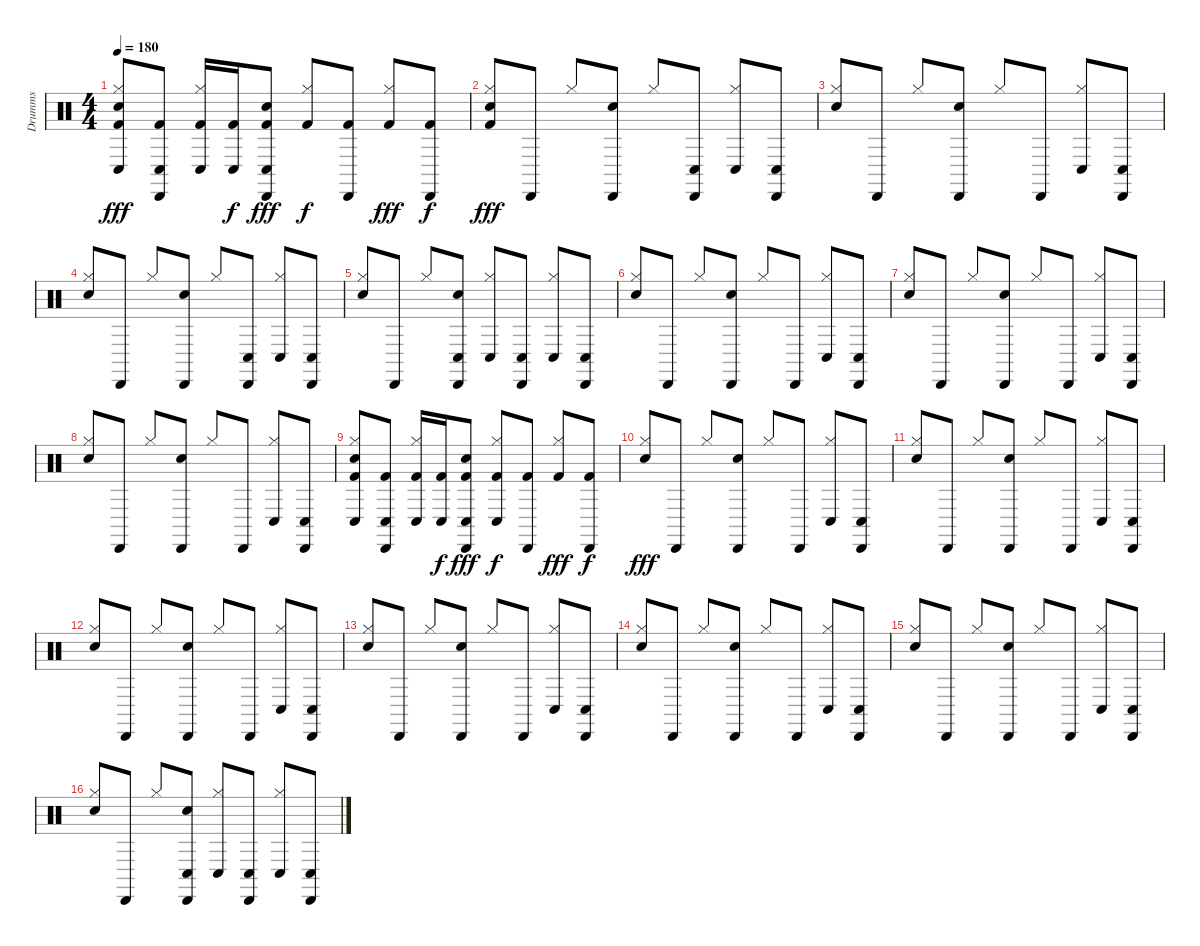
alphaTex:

\track ("Drumms" "Drumms") {instrument percussion}
\staff {score}
\articulation defaults
\ts (4 4)
\tempo 180
\clef neutral
\ks c
("Hi-Hat (closed)" "Metronome (bell)" "Conga low (hit)" "Kick (hit) 2").8{dy fff} ("Cabasa (hit)" "Conga low (hit)" "Kick (hit) 2").8 ("Hi-Hat (closed)" "Conga low (hit)" "Kick (hit) 2").16 ("Conga low (hit)" "Kick (hit) 2").16{dy f} ("Cabasa (hit)" "Metronome (bell)" "Conga low (hit)" "Kick (hit) 2").8{dy fff} ("Hi-Hat (closed)" "Kick (hit) 2").8{dy f} ("Cabasa (hit)" "Kick (hit) 2").8 ("Hi-Hat (closed)" "Kick (hit) 2").8{dy fff} ("Cabasa (hit)" "Kick (hit) 2").8{dy f} |
("Hi-Hat (closed)" "Metronome (bell)" "Kick (hit) 2").8{dy fff} "Cabasa (hit)".8 "Hi-Hat (closed)".8 ("Cabasa (hit)" "Metronome (bell)").8 "Hi-Hat (closed)".8 ("Cabasa (hit)" "Conga low (hit)").8 ("Hi-Hat (closed)" "Conga low (hit)").8 ("Cabasa (hit)" "Conga low (hit)").8 |
("Hi-Hat (closed)" "Metronome (bell)").8 "Cabasa (hit)".8 "Hi-Hat (closed)".8 ("Cabasa (hit)" "Metronome (bell)").8 "Hi-Hat (closed)".8 "Cabasa (hit)".8 ("Hi-Hat (closed)" "Conga low (hit)").8 ("Cabasa (hit)" "Conga low (hit)").8 |
("Hi-Hat (closed)" "Metronome (bell)").8 "Cabasa (hit)".8 "Hi-Hat (closed)".8 ("Cabasa (hit)" "Metronome (bell)").8 "Hi-Hat (closed)".8 ("Cabasa (hit)" "Conga low (hit)").8 ("Hi-Hat (closed)" "Conga low (hit)").8 ("Cabasa (hit)" "Conga low (hit)").8 |
("Hi-Hat (closed)" "Metronome (bell)").8 "Cabasa (hit)".8 "Hi-Hat (closed)".8 ("Cabasa (hit)" "Metronome (bell)" "Conga low (hit)").8 ("Hi-Hat (closed)" "Conga low (hit)").8 ("Cabasa (hit)" "Conga low (hit)").8 ("Hi-Hat (closed)" "Conga low (hit)").8 ("Cabasa (hit)" "Conga low (hit)").8 |
("Hi-Hat (closed)" "Metronome (bell)").8 "Cabasa (hit)".8 "Hi-Hat (closed)".8 ("Cabasa (hit)" "Metronome (bell)").8 "Hi-Hat (closed)".8 "Cabasa (hit)".8 ("Hi-Hat (closed)" "Conga low (hit)").8 ("Cabasa (hit)" "Conga low (hit)").8 |
("Hi-Hat (closed)" "Metronome (bell)").8 "Cabasa (hit)".8 "Hi-Hat (closed)".8 ("Cabasa (hit)" "Metronome (bell)").8 "Hi-Hat (closed)".8 "Cabasa (hit)".8 ("Hi-Hat (closed)" "Conga low (hit)").8 ("Cabasa (hit)" "Conga low (hit)").8 |
("Hi-Hat (closed)" "Metronome (bell)").8 "Cabasa (hit)".8 "Hi-Hat (closed)".8 ("Cabasa (hit)" "Metronome (bell)").8 "Hi-Hat (closed)".8 "Cabasa (hit)".8 ("Hi-Hat (closed)" "Conga low (hit)").8 ("Cabasa (hit)" "Conga low (hit)").8 |
("Hi-Hat (closed)" "Metronome (bell)" "Conga low (hit)" "Kick (hit) 2").8 ("Cabasa (hit)" "Conga low (hit)" "Kick (hit) 2").8 ("Hi-Hat (closed)" "Conga low (hit)" "Kick (hit) 2").16 ("Conga low (hit)" "Kick (hit) 2").16{dy f} ("Cabasa (hit)" "Metronome (bell)" "Conga low (hit)" "Kick (hit) 2").8{dy fff} ("Hi-Hat (closed)" "Conga low (hit)" "Kick (hit) 2").8{dy f} ("Cabasa (hit)" "Kick (hit) 2").8 ("Hi-Hat (closed)" "Kick (hit) 2").8{dy fff} ("Cabasa (hit)" "Kick (hit) 2").8{dy f} |
("Hi-Hat (closed)" "Metronome (bell)").8{dy fff} "Cabasa (hit)".8 "Hi-Hat (closed)".8 ("Cabasa (hit)" "Metronome (bell)").8 "Hi-Hat (closed)".8 "Cabasa (hit)".8 ("Hi-Hat (closed)" "Conga low (hit)").8 ("Cabasa (hit)" "Conga low (hit)").8 |
("Hi-Hat (closed)" "Metronome (bell)").8 "Cabasa (hit)".8 "Hi-Hat (closed)".8 ("Cabasa (hit)" "Metronome (bell)").8 "Hi-Hat (closed)".8 "Cabasa (hit)".8 ("Hi-Hat (closed)" "Conga low (hit)").8 ("Cabasa (hit)" "Conga low (hit)").8 |
("Hi-Hat (closed)" "Metronome (bell)").8 "Cabasa (hit)".8 "Hi-Hat (closed)".8 ("Cabasa (hit)" "Metronome (bell)").8 "Hi-Hat (closed)".8 "Cabasa (hit)".8 ("Hi-Hat (closed)" "Conga low (hit)").8 ("Cabasa (hit)" "Conga low (hit)").8 |
("Hi-Hat (closed)" "Metronome (bell)").8 "Cabasa (hit)".8 "Hi-Hat (closed)".8 ("Cabasa (hit)" "Metronome (bell)").8 "Hi-Hat (closed)".8 "Cabasa (hit)".8 ("Hi-Hat (closed)" "Conga low (hit)").8 ("Cabasa (hit)" "Conga low (hit)").8 |
("Hi-Hat (closed)" "Metronome (bell)").8 "Cabasa (hit)".8 "Hi-Hat (closed)".8 ("Cabasa (hit)" "Metronome (bell)").8 "Hi-Hat (closed)".8 "Cabasa (hit)".8 ("Hi-Hat (closed)" "Conga low (hit)").8 ("Cabasa (hit)" "Conga low (hit)").8 |
("Hi-Hat (closed)" "Metronome (bell)").8 "Cabasa (hit)".8 "Hi-Hat (closed)".8 ("Cabasa (hit)" "Metronome (bell)").8 "Hi-Hat (closed)".8 "Cabasa (hit)".8 ("Hi-Hat (closed)" "Conga low (hit)").8 ("Cabasa (hit)" "Conga low (hit)").8 |
("Hi-Hat (closed)" "Metronome (bell)").8 "Cabasa (hit)".8 "Hi-Hat (closed)".8 ("Cabasa (hit)" "Metronome (bell)" "Conga low (hit)").8 ("Hi-Hat (closed)" "Conga low (hit)").8 ("Cabasa (hit)" "Conga low (hit)").8 ("Hi-Hat (closed)" "Conga low (hit)").8 ("Cabasa (hit)" "Conga low (hit)").8
